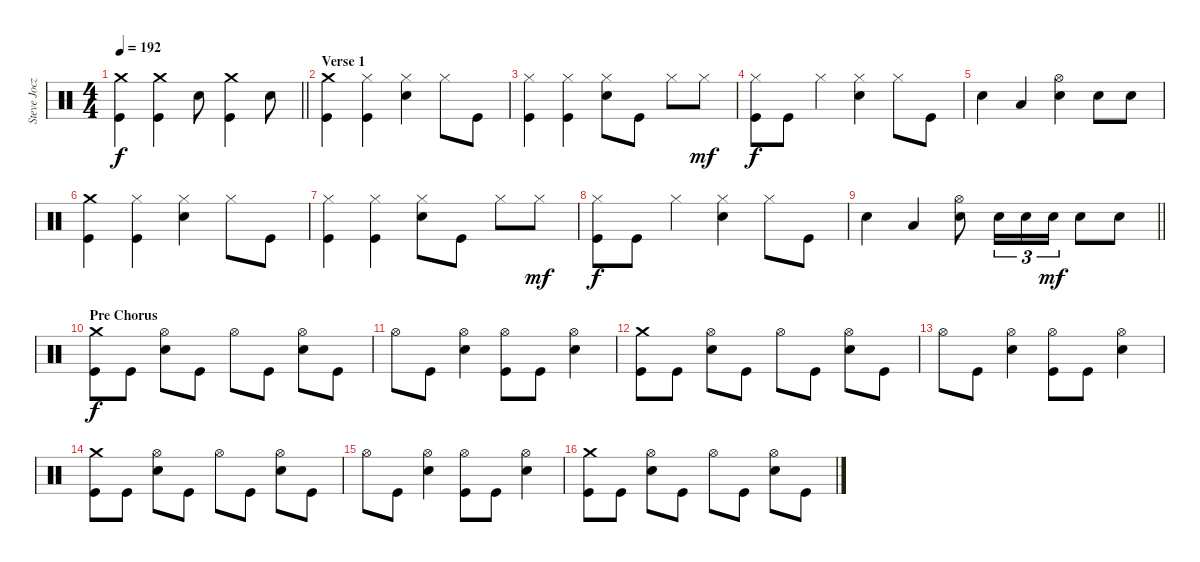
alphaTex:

\track ("Steve Jocz" "Steve Jocz") {instrument percussion}
\staff {score}
\articulation defaults
\ts (4 4)
\tempo 192
\clef neutral
\barLineRight lightlight
\ks c
("Crash medium (hit)" "Kick (hit)").4{dy f} ("Crash medium (hit)" "Kick (hit)").4 "Electric Snare (hit)".8 ("Crash medium (hit)" "Kick (hit)").4 "Electric Snare (hit)".8 |
\section ("" "Verse 1")
("Crash medium (hit)" "Kick (hit)").4{volume 12} ("Hi-Hat (closed)" "Kick (hit)").4 ("Hi-Hat (closed)" "Electric Snare (hit)").4 "Hi-Hat (closed)".8 "Kick (hit)".8 |
("Hi-Hat (closed)" "Kick (hit)").4 ("Hi-Hat (closed)" "Kick (hit)").4 ("Hi-Hat (closed)" "Electric Snare (hit)").8 "Kick (hit)".8 "Hi-Hat (closed)".8 "Hi-Hat (closed)".8{dy mf} |
("Hi-Hat (closed)" "Kick (hit)").8{dy f} "Kick (hit)".8 "Hi-Hat (closed)".4 ("Hi-Hat (closed)" "Electric Snare (hit)").4 "Hi-Hat (closed)".8 "Kick (hit)".8 |
"Electric Snare (hit)".4 "Low Tom (hit)".4 ("Hi-Hat (open)" "Electric Snare (hit)").4 "Electric Snare (hit)".8 "Electric Snare (hit)".8 |
("Crash medium (hit)" "Kick (hit)").4{volume 12} ("Hi-Hat (closed)" "Kick (hit)").4 ("Hi-Hat (closed)" "Electric Snare (hit)").4 "Hi-Hat (closed)".8 "Kick (hit)".8 |
("Hi-Hat (closed)" "Kick (hit)").4 ("Hi-Hat (closed)" "Kick (hit)").4 ("Hi-Hat (closed)" "Electric Snare (hit)").8 "Kick (hit)".8 "Hi-Hat (closed)".8 "Hi-Hat (closed)".8{dy mf} |
("Hi-Hat (closed)" "Kick (hit)").8{dy f} "Kick (hit)".8 "Hi-Hat (closed)".4 ("Hi-Hat (closed)" "Electric Snare (hit)").4 "Hi-Hat (closed)".8 "Kick (hit)".8 |
\barLineRight lightlight "Electric Snare (hit)".4{volume 15} "Low Tom (hit)".4
("Hi-Hat (open)" "Electric Snare (hit)").8 "Electric Snare (hit)".16{tu (3 2)} "Electric Snare (hit)".16{tu (3 2)} "Electric Snare (hit)".16{tu (3 2) dy mf} "Electric Snare (hit)".8 "Electric Snare (hit)".8 |
\section ("" "Pre Chorus")
("Crash medium (hit)" "Kick (hit)").8{dy f} "Kick (hit)".8 ("Hi-Hat (open)" "Electric Snare (hit)").8 "Kick (hit)".8 "Hi-Hat (open)".8 "Kick (hit)".8 ("Hi-Hat (open)" "Electric Snare (hit)").8 "Kick (hit)".8 |
"Hi-Hat (open)".8 "Kick (hit)".8 ("Hi-Hat (open)" "Electric Snare (hit)").4 ("Hi-Hat (open)" "Kick (hit)").8 "Kick (hit)".8 ("Hi-Hat (open)" "Electric Snare (hit)").4 |
("Crash medium (hit)" "Kick (hit)").8 "Kick (hit)".8 ("Hi-Hat (open)" "Electric Snare (hit)").8 "Kick (hit)".8 "Hi-Hat (open)".8 "Kick (hit)".8 ("Hi-Hat (open)" "Electric Snare (hit)").8 "Kick (hit)".8 |
"Hi-Hat (open)".8 "Kick (hit)".8 ("Hi-Hat (open)" "Electric Snare (hit)").4 ("Hi-Hat (open)" "Kick (hit)").8 "Kick (hit)".8 ("Hi-Hat (open)" "Electric Snare (hit)").4 |
("Crash medium (hit)" "Kick (hit)").8 "Kick (hit)".8 ("Hi-Hat (open)" "Electric Snare (hit)").8 "Kick (hit)".8 "Hi-Hat (open)".8 "Kick (hit)".8 ("Hi-Hat (open)" "Electric Snare (hit)").8 "Kick (hit)".8 |
"Hi-Hat (open)".8 "Kick (hit)".8 ("Hi-Hat (open)" "Electric Snare (hit)").4 ("Hi-Hat (open)" "Kick (hit)").8 "Kick (hit)".8 ("Hi-Hat (open)" "Electric Snare (hit)").4 |
("Crash medium (hit)" "Kick (hit)").8 "Kick (hit)".8 ("Hi-Hat (open)" "Electric Snare (hit)").8 "Kick (hit)".8 "Hi-Hat (open)".8 "Kick (hit)".8 ("Hi-Hat (open)" "Electric Snare (hit)").8 "Kick (hit)".8
